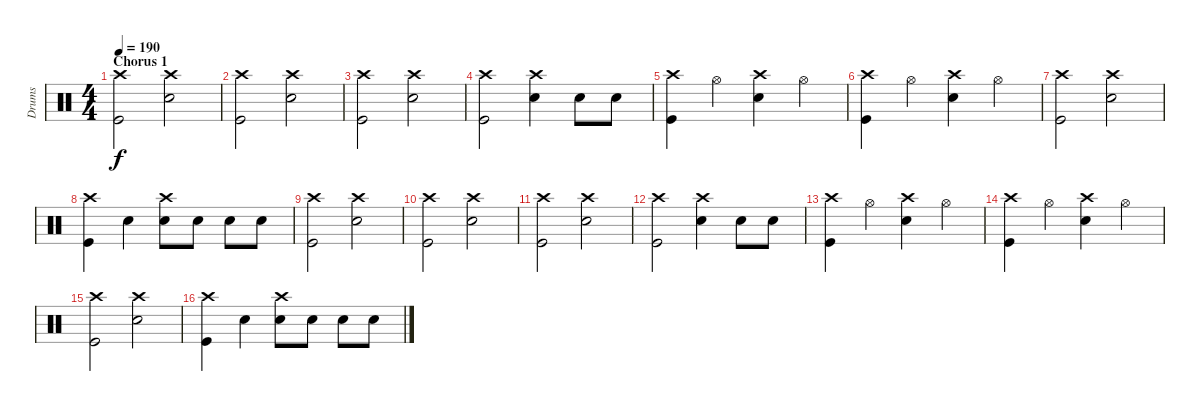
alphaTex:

\track ("Drums" "Drums") {instrument percussion}
\staff {score}
\articulation defaults
\ts (4 4)
\section ("" "Chorus 1")
\tempo 190
\clef neutral
\ks c
("Crash high (hit)" "Kick (hit)").2{dy f} ("Crash high (hit)" "Snare (hit) 2").2 |
("Crash high (hit)" "Kick (hit)").2 ("Crash high (hit)" "Snare (hit) 2").2 |
("Crash high (hit)" "Kick (hit)").2 ("Crash high (hit)" "Snare (hit) 2").2 |
("Crash high (hit)" "Kick (hit)").2 ("Crash high (hit)" "Snare (hit) 2").4 "Snare (hit) 2".8 "Snare (hit) 2".8 |
("Crash high (hit)" "Kick (hit)").4 "Hi-Hat (open)".4 ("Crash high (hit)" "Snare (hit) 2").4 "Hi-Hat (open)".4 |
("Crash high (hit)" "Kick (hit)").4 "Hi-Hat (open)".4 ("Crash high (hit)" "Snare (hit) 2").4 "Hi-Hat (open)".4 |
("Crash high (hit)" "Kick (hit)").2 ("Crash high (hit)" "Snare (hit) 2").2 |
("Crash high (hit)" "Kick (hit)").4 "Snare (hit) 2".4 ("Crash high (hit)" "Snare (hit) 2").8 "Snare (hit) 2".8 "Snare (hit) 2".8 "Snare (hit) 2".8 |
("Crash high (hit)" "Kick (hit)").2 ("Crash high (hit)" "Snare (hit) 2").2 |
("Crash high (hit)" "Kick (hit)").2 ("Crash high (hit)" "Snare (hit) 2").2 |
("Crash high (hit)" "Kick (hit)").2 ("Crash high (hit)" "Snare (hit) 2").2 |
("Crash high (hit)" "Kick (hit)").2 ("Crash high (hit)" "Snare (hit) 2").4 "Snare (hit) 2".8 "Snare (hit) 2".8 |
("Crash high (hit)" "Kick (hit)").4 "Hi-Hat (open)".4 ("Crash high (hit)" "Snare (hit) 2").4 "Hi-Hat (open)".4 |
("Crash high (hit)" "Kick (hit)").4 "Hi-Hat (open)".4 ("Crash high (hit)" "Snare (hit) 2").4 "Hi-Hat (open)".4 |
("Crash high (hit)" "Kick (hit)").2 ("Crash high (hit)" "Snare (hit) 2").2 |
("Crash high (hit)" "Kick (hit)").4 "Snare (hit) 2".4 ("Crash high (hit)" "Snare (hit) 2").8 "Snare (hit) 2".8 "Snare (hit) 2".8 "Snare (hit) 2".8
